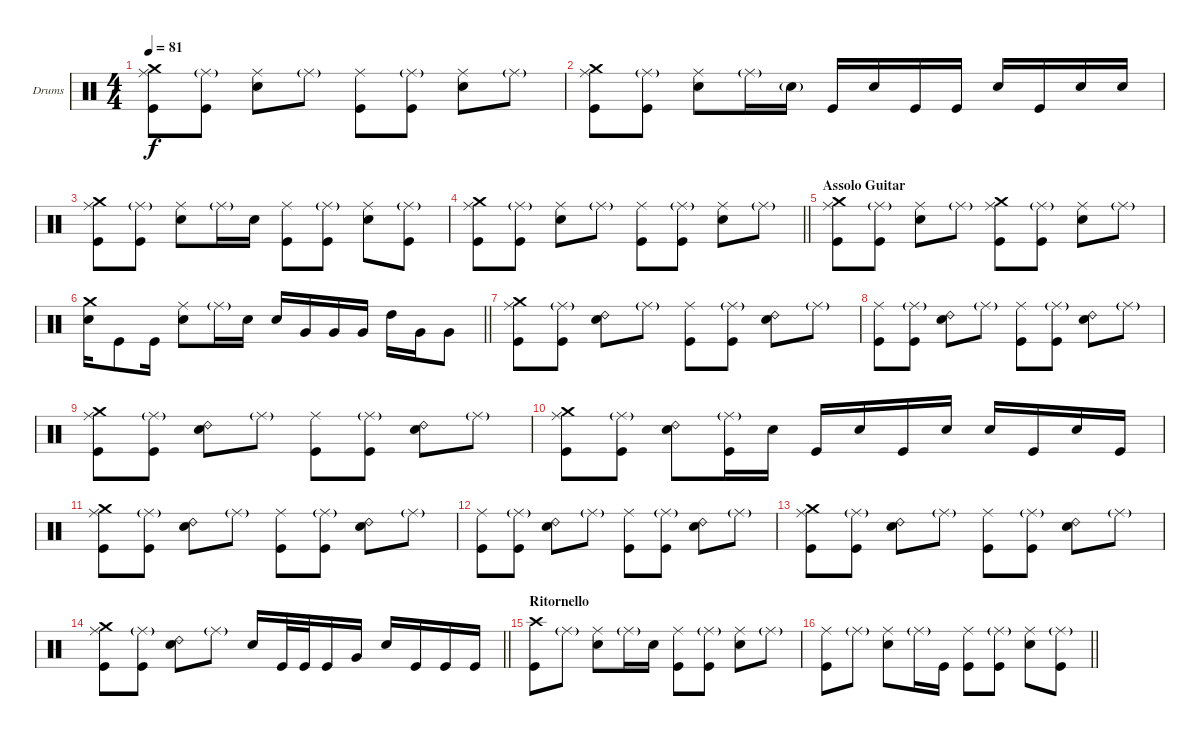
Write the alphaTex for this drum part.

\bracketExtendMode groupsimilarinstruments
\firstSystemTrackNameOrientation horizontal
\otherSystemsTrackNameOrientation horizontal
\track ("Batteria" "Drums") {instrument percussion}
\staff {score}
\articulation defaults
\ts (4 4)
\tempo 81
\clef neutral
\ks c
("Ride (middle)" "Kick (hit)" "Crash medium (hit)").8{dy f} ("Ride (middle)"{g} "Kick (hit)").8 ("Ride (middle)" "Snare (hit) 2").8 "Ride (middle)"{g}.8 ("Ride (middle)" "Kick (hit)").8 ("Ride (middle)"{g} "Kick (hit)").8 ("Ride (middle)" "Snare (hit) 2").8 "Ride (middle)"{g}.8 |
("Ride (middle)" "Kick (hit)" "Crash medium (hit)").8 ("Ride (middle)"{g} "Kick (hit)").8 ("Snare (hit) 2" "Ride (middle)").8 "Ride (middle)"{g}.16 "Snare (hit) 2"{g}.16 "Kick (hit)".16 "Snare (hit) 2".16 "Kick (hit)".16 "Kick (hit)".16 "Snare (hit) 2".16 "Kick (hit)".16 "Snare (hit) 2".16 "Snare (hit) 2".16 |
("Ride (middle)" "Kick (hit)" "Crash medium (hit)").8 ("Ride (middle)"{g} "Kick (hit)").8 ("Snare (hit) 2" "Ride (middle)").8 "Ride (middle)"{g}.16 "Snare (hit) 2".16 ("Ride (middle)" "Kick (hit)").8 ("Ride (middle)"{g} "Kick (hit)").8 ("Ride (middle)" "Snare (hit) 2").8 ("Ride (middle)"{g} "Kick (hit)").8 |
\barLineRight lightlight
("Ride (middle)" "Kick (hit)" "Crash medium (hit)").8 ("Ride (middle)"{g} "Kick (hit)").8 ("Ride (middle)" "Snare (hit) 2").8 "Ride (middle)"{g}.8 ("Ride (middle)" "Kick (hit)").8 ("Ride (middle)"{g} "Kick (hit)").8 ("Ride (middle)" "Snare (hit) 2").8 "Ride (middle)"{g}.8 |
\section ("" "Assolo Guitar")
("Ride (middle)" "Kick (hit)" "Crash medium (hit)").8 ("Ride (middle)"{g} "Kick (hit)").8 ("Ride (middle)" "Snare (hit) 2").8 "Ride (middle)"{g}.8 ("Ride (middle)" "Kick (hit)" "Crash medium (hit)").8 ("Ride (middle)"{g} "Kick (hit)").8 ("Ride (middle)" "Snare (hit) 2").8 "Ride (middle)"{g}.8 |
\barLineRight lightlight
("Snare (hit) 2" "Crash medium (hit)").16 "Kick (hit)".8 "Kick (hit)".16 ("Snare (hit) 2" "Ride (middle)").8 "Ride (middle)"{g}.16 "Snare (hit) 2".16 "Snare (hit) 2".16 "Very Low Tom (hit)".16 "Very Low Tom (hit)".16 "Very Low Tom (hit)".16 "High Tom (hit)".16 "Very Low Tom (hit)".16 "Very Low Tom (hit)".8 |
("Ride (middle)" "Kick (hit)" "Crash medium (hit)").8 ("Ride (middle)"{g} "Kick (hit)").8 ("Ride (bell) 2" "Snare (hit) 2").8 "Ride (middle)"{g}.8 ("Ride (middle)" "Kick (hit)").8 ("Ride (middle)"{g} "Kick (hit)").8 ("Ride (bell) 2" "Snare (hit) 2").8 "Ride (middle)"{g}.8 |
("Ride (middle)" "Kick (hit)").8 ("Ride (middle)"{g} "Kick (hit)").8 ("Ride (bell) 2" "Snare (hit) 2").8 "Ride (middle)"{g}.8 ("Ride (middle)" "Kick (hit)").8 ("Ride (middle)"{g} "Kick (hit)").8 ("Ride (bell) 2" "Snare (hit) 2").8 "Ride (middle)"{g}.8 |
("Ride (middle)" "Kick (hit)" "Crash medium (hit)").8 ("Ride (middle)"{g} "Kick (hit)").8 ("Ride (bell) 2" "Snare (hit) 2").8 "Ride (middle)"{g}.8 ("Ride (middle)" "Kick (hit)").8 ("Ride (middle)"{g} "Kick (hit)").8 ("Ride (bell) 2" "Snare (hit) 2").8 "Ride (middle)"{g}.8 |
("Ride (middle)" "Kick (hit)" "Crash medium (hit)").8 ("Ride (middle)"{g} "Kick (hit)").8 ("Ride (bell) 2" "Snare (hit) 2").8 ("Ride (middle)"{g} "Kick (hit)").16 "Snare (hit) 2".16 "Kick (hit)".16 "Snare (hit) 2".16 "Kick (hit)".16 "Snare (hit) 2".16 "Snare (hit) 2".16 "Kick (hit)".16 "Snare (hit) 2".16 "Kick (hit)".16 |
("Ride (middle)" "Kick (hit)" "Crash medium (hit)").8 ("Ride (middle)"{g} "Kick (hit)").8 ("Ride (bell) 2" "Snare (hit) 2").8 "Ride (middle)"{g}.8 ("Ride (middle)" "Kick (hit)").8 ("Ride (middle)"{g} "Kick (hit)").8 ("Ride (bell) 2" "Snare (hit) 2").8 "Ride (middle)"{g}.8 |
("Ride (middle)" "Kick (hit)").8 ("Ride (middle)"{g} "Kick (hit)").8 ("Ride (bell) 2" "Snare (hit) 2").8 "Ride (middle)"{g}.8 ("Ride (middle)" "Kick (hit)").8 ("Ride (middle)"{g} "Kick (hit)").8 ("Ride (bell) 2" "Snare (hit) 2").8 "Ride (middle)"{g}.8 |
("Ride (middle)" "Kick (hit)" "Crash medium (hit)").8 ("Ride (middle)"{g} "Kick (hit)").8 ("Ride (bell) 2" "Snare (hit) 2").8 "Ride (middle)"{g}.8 ("Ride (middle)" "Kick (hit)").8 ("Ride (middle)"{g} "Kick (hit)").8 ("Ride (bell) 2" "Snare (hit) 2").8 "Ride (middle)"{g}.8 |
\barLineRight lightlight
("Ride (middle)" "Kick (hit)" "Crash medium (hit)").8 ("Ride (middle)"{g} "Kick (hit)").8 ("Ride (bell) 2" "Snare (hit) 2").8 "Ride (middle)"{g}.8 "Snare (hit) 2".16 "Kick (hit)".32 "Kick (hit)".32 "Kick (hit)".16 "Very Low Tom (hit)".16 "Snare (hit) 2".16 "Kick (hit)".16 "Kick (hit)".16 "Kick (hit)".16 |
\section ("" "Ritornello")
("Kick (hit)" "Crash high (hit)").8 "Ride (middle)"{g}.8 ("Snare (hit) 2" "Ride (middle)").8 "Ride (middle)"{g}.16 "Snare (hit) 2".16 ("Ride (middle)" "Kick (hit)").8 ("Ride (middle)"{g} "Kick (hit)").8 ("Ride (middle)" "Snare (hit) 2").8 "Ride (middle)"{g}.8 |
\barLineRight lightlight
("Kick (hit)" "Ride (middle)").8 "Ride (middle)"{g}.8 ("Snare (hit) 2" "Ride (middle)").8 "Ride (middle)"{g}.16 "Kick (hit)".16 ("Ride (middle)" "Kick (hit)").8 ("Ride (middle)"{g} "Kick (hit)").8 ("Ride (middle)" "Snare (hit) 2").8 ("Ride (middle)"{g} "Kick (hit)").8
